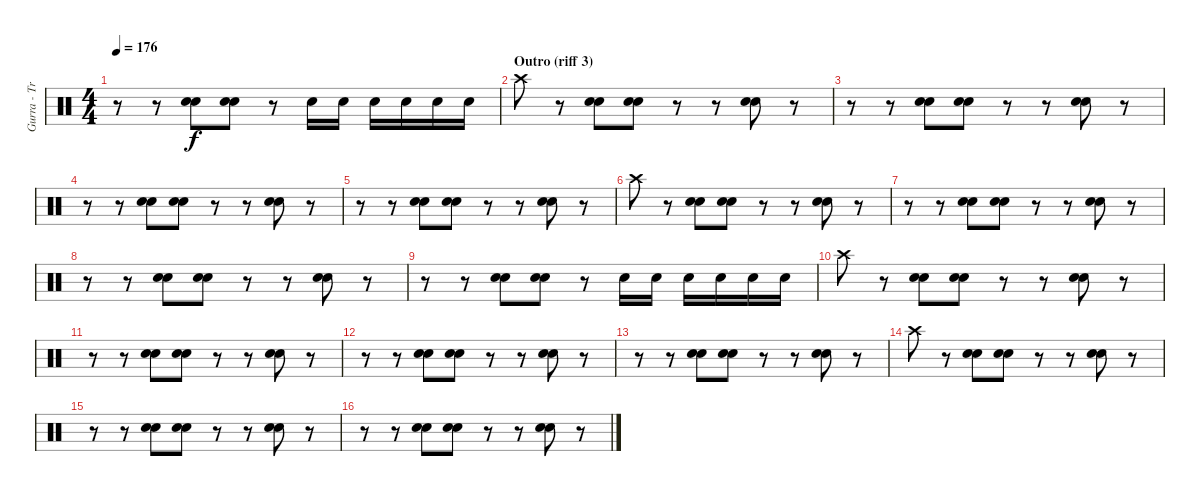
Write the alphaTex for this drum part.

\track ("Gurra - Trummor" "Gurra - Tr") {instrument percussion}
\staff {score}
\articulation defaults
\ts (4 4)
\tempo 176
\clef neutral
\ks c
r.8{dy f} r.8 ("Electric Snare (hit)" "Electric Snare (hit)").8 ("Electric Snare (hit)" "Electric Snare (hit)").8 r.8 "Electric Snare (hit)".16 "Electric Snare (hit)".16 "Electric Snare (hit)".16 "Electric Snare (hit)".16 "Electric Snare (hit)".16 "Electric Snare (hit)".16 |
\section ("" "Outro (riff 3)")
"Crash high (hit)".8 r.8 ("Electric Snare (hit)" "Electric Snare (hit)").8 ("Electric Snare (hit)" "Electric Snare (hit)").8 r.8 r.8 ("Electric Snare (hit)" "Electric Snare (hit)").8 r.8 |
r.8 r.8 ("Electric Snare (hit)" "Electric Snare (hit)").8 ("Electric Snare (hit)" "Electric Snare (hit)").8 r.8 r.8 ("Electric Snare (hit)" "Electric Snare (hit)").8 r.8 |
r.8 r.8 ("Electric Snare (hit)" "Electric Snare (hit)").8 ("Electric Snare (hit)" "Electric Snare (hit)").8 r.8 r.8 ("Electric Snare (hit)" "Electric Snare (hit)").8 r.8 |
r.8 r.8 ("Electric Snare (hit)" "Electric Snare (hit)").8 ("Electric Snare (hit)" "Electric Snare (hit)").8 r.8 r.8 ("Electric Snare (hit)" "Electric Snare (hit)").8 r.8 |
"Crash high (hit)".8 r.8 ("Electric Snare (hit)" "Electric Snare (hit)").8 ("Electric Snare (hit)" "Electric Snare (hit)").8 r.8 r.8 ("Electric Snare (hit)" "Electric Snare (hit)").8 r.8 |
r.8 r.8 ("Electric Snare (hit)" "Electric Snare (hit)").8 ("Electric Snare (hit)" "Electric Snare (hit)").8 r.8 r.8 ("Electric Snare (hit)" "Electric Snare (hit)").8 r.8 |
r.8 r.8 ("Electric Snare (hit)" "Electric Snare (hit)").8 ("Electric Snare (hit)" "Electric Snare (hit)").8 r.8 r.8 ("Electric Snare (hit)" "Electric Snare (hit)").8 r.8 |
r.8 r.8 ("Electric Snare (hit)" "Electric Snare (hit)").8 ("Electric Snare (hit)" "Electric Snare (hit)").8 r.8 "Electric Snare (hit)".16 "Electric Snare (hit)".16 "Electric Snare (hit)".16 "Electric Snare (hit)".16 "Electric Snare (hit)".16 "Electric Snare (hit)".16 |
"Crash high (hit)".8 r.8 ("Electric Snare (hit)" "Electric Snare (hit)").8 ("Electric Snare (hit)" "Electric Snare (hit)").8 r.8 r.8 ("Electric Snare (hit)" "Electric Snare (hit)").8 r.8 |
r.8 r.8 ("Electric Snare (hit)" "Electric Snare (hit)").8 ("Electric Snare (hit)" "Electric Snare (hit)").8 r.8 r.8 ("Electric Snare (hit)" "Electric Snare (hit)").8 r.8 |
r.8 r.8 ("Electric Snare (hit)" "Electric Snare (hit)").8 ("Electric Snare (hit)" "Electric Snare (hit)").8 r.8 r.8 ("Electric Snare (hit)" "Electric Snare (hit)").8 r.8 |
r.8 r.8 ("Electric Snare (hit)" "Electric Snare (hit)").8 ("Electric Snare (hit)" "Electric Snare (hit)").8 r.8 r.8 ("Electric Snare (hit)" "Electric Snare (hit)").8 r.8 |
"Crash high (hit)".8 r.8 ("Electric Snare (hit)" "Electric Snare (hit)").8 ("Electric Snare (hit)" "Electric Snare (hit)").8 r.8 r.8 ("Electric Snare (hit)" "Electric Snare (hit)").8 r.8 |
r.8 r.8 ("Electric Snare (hit)" "Electric Snare (hit)").8 ("Electric Snare (hit)" "Electric Snare (hit)").8 r.8 r.8 ("Electric Snare (hit)" "Electric Snare (hit)").8 r.8 |
r.8 r.8 ("Electric Snare (hit)" "Electric Snare (hit)").8 ("Electric Snare (hit)" "Electric Snare (hit)").8 r.8 r.8 ("Electric Snare (hit)" "Electric Snare (hit)").8 r.8
